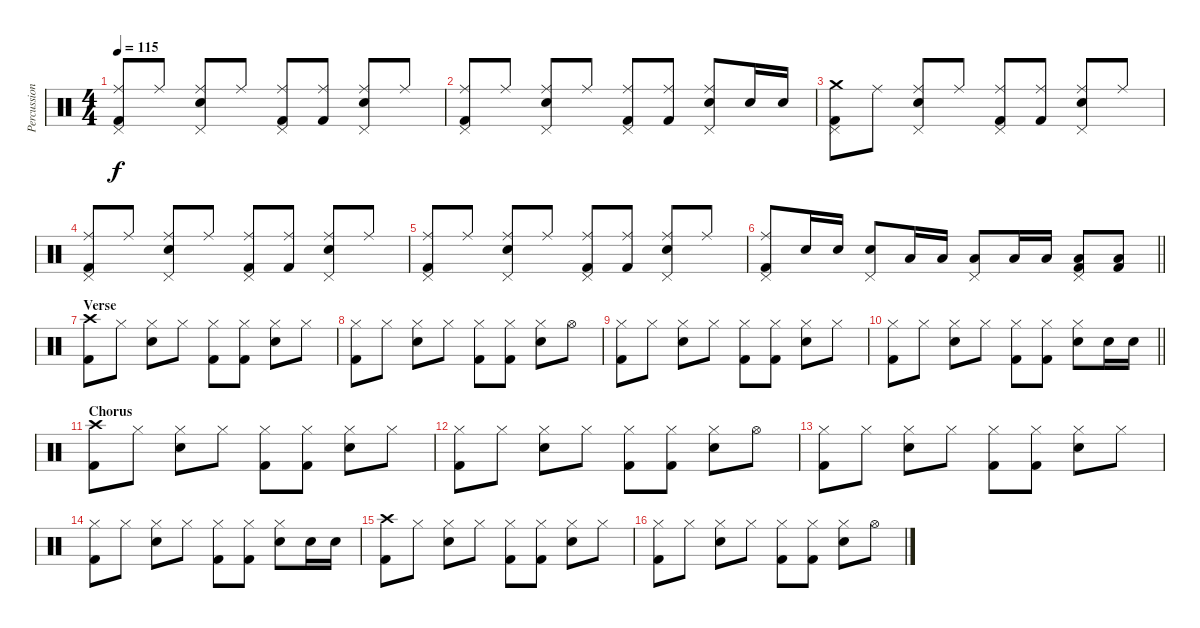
\track ("Percussions" "Percussion") {instrument percussion}
\staff {score}
\articulation defaults
\ts (4 4)
\tempo 115
\clef neutral
\ks c
("Pedal Hi-Hat (hit)" "Ride (middle)" "Kick (hit) 2").8{dy f} "Ride (middle)".8 ("Pedal Hi-Hat (hit)" "Ride (middle)" "Electric Snare (hit)").8 "Ride (middle)".8 ("Pedal Hi-Hat (hit)" "Ride (middle)" "Kick (hit) 2").8 ("Ride (middle)" "Kick (hit) 2").8 ("Pedal Hi-Hat (hit)" "Ride (middle)" "Electric Snare (hit)").8 "Ride (middle)".8 |
("Pedal Hi-Hat (hit)" "Ride (middle)" "Kick (hit) 2").8 "Ride (middle)".8 ("Pedal Hi-Hat (hit)" "Ride (middle)" "Electric Snare (hit)").8 "Ride (middle)".8 ("Pedal Hi-Hat (hit)" "Ride (middle)" "Kick (hit) 2").8 ("Ride (middle)" "Kick (hit) 2").8 ("Pedal Hi-Hat (hit)" "Ride (middle)" "Electric Snare (hit)").8 "Electric Snare (hit)".16 "Electric Snare (hit)".16 |
("Pedal Hi-Hat (hit)" "Crash medium (hit)" "Kick (hit) 2").8 "Ride (middle)".8 ("Pedal Hi-Hat (hit)" "Ride (middle)" "Electric Snare (hit)").8 "Ride (middle)".8 ("Pedal Hi-Hat (hit)" "Ride (middle)" "Kick (hit) 2").8 ("Ride (middle)" "Kick (hit) 2").8 ("Pedal Hi-Hat (hit)" "Ride (middle)" "Electric Snare (hit)").8 "Ride (middle)".8 |
("Pedal Hi-Hat (hit)" "Ride (middle)" "Kick (hit) 2").8 "Ride (middle)".8 ("Pedal Hi-Hat (hit)" "Ride (middle)" "Electric Snare (hit)").8 "Ride (middle)".8 ("Pedal Hi-Hat (hit)" "Ride (middle)" "Kick (hit) 2").8 ("Ride (middle)" "Kick (hit) 2").8 ("Pedal Hi-Hat (hit)" "Ride (middle)" "Electric Snare (hit)").8 "Ride (middle)".8 |
("Pedal Hi-Hat (hit)" "Ride (middle)" "Kick (hit) 2").8 "Ride (middle)".8 ("Pedal Hi-Hat (hit)" "Ride (middle)" "Electric Snare (hit)").8 "Ride (middle)".8 ("Pedal Hi-Hat (hit)" "Ride (middle)" "Kick (hit) 2").8 ("Ride (middle)" "Kick (hit) 2").8 ("Pedal Hi-Hat (hit)" "Ride (middle)" "Electric Snare (hit)").8 "Ride (middle)".8 |
\barLineRight lightlight
("Pedal Hi-Hat (hit)" "Ride (middle)" "Kick (hit) 2").8 "Electric Snare (hit)".16 "Electric Snare (hit)".16 ("Pedal Hi-Hat (hit)" "Electric Snare (hit)").8 "Low Tom (hit)".16 "Low Tom (hit)".16 ("Pedal Hi-Hat (hit)" "Low Tom (hit)").8 "Low Floor Tom (hit)".16 "Low Floor Tom (hit)".16 ("Pedal Hi-Hat (hit)" "Kick (hit) 2" "Low Floor Tom (hit)").8 ("Kick (hit) 2" "Low Floor Tom (hit)").8 |
\section ("" "Verse")
("Crash high (hit)" "Kick (hit) 2").8 "Hi-Hat (closed)".8 ("Hi-Hat (closed)" "Electric Snare (hit)").8 "Hi-Hat (closed)".8 ("Hi-Hat (closed)" "Kick (hit) 2").8 ("Hi-Hat (closed)" "Kick (hit) 2").8 ("Hi-Hat (closed)" "Electric Snare (hit)").8 "Hi-Hat (closed)".8 |
("Hi-Hat (closed)" "Kick (hit) 2").8 "Hi-Hat (closed)".8 ("Hi-Hat (closed)" "Electric Snare (hit)").8 "Hi-Hat (closed)".8 ("Hi-Hat (closed)" "Kick (hit) 2").8 ("Hi-Hat (closed)" "Kick (hit) 2").8 ("Hi-Hat (closed)" "Electric Snare (hit)").8 "Hi-Hat (open)".8 |
("Hi-Hat (closed)" "Kick (hit) 2").8 "Hi-Hat (closed)".8 ("Hi-Hat (closed)" "Electric Snare (hit)").8 "Hi-Hat (closed)".8 ("Hi-Hat (closed)" "Kick (hit) 2").8 ("Hi-Hat (closed)" "Kick (hit) 2").8 ("Hi-Hat (closed)" "Electric Snare (hit)").8 "Hi-Hat (closed)".8 |
\barLineRight lightlight
("Hi-Hat (closed)" "Kick (hit) 2").8 "Hi-Hat (closed)".8 ("Hi-Hat (closed)" "Electric Snare (hit)").8 "Hi-Hat (closed)".8 ("Hi-Hat (closed)" "Kick (hit) 2").8 ("Hi-Hat (closed)" "Kick (hit) 2").8 ("Hi-Hat (closed)" "Electric Snare (hit)").8 "Electric Snare (hit)".16 "Electric Snare (hit)".16 |
\section ("" "Chorus")
("Crash high (hit)" "Kick (hit) 2").8 "Hi-Hat (closed)".8 ("Hi-Hat (closed)" "Electric Snare (hit)").8 "Hi-Hat (closed)".8 ("Hi-Hat (closed)" "Kick (hit) 2").8 ("Hi-Hat (closed)" "Kick (hit) 2").8 ("Hi-Hat (closed)" "Electric Snare (hit)").8 "Hi-Hat (closed)".8 |
("Hi-Hat (closed)" "Kick (hit) 2").8 "Hi-Hat (closed)".8 ("Hi-Hat (closed)" "Electric Snare (hit)").8 "Hi-Hat (closed)".8 ("Hi-Hat (closed)" "Kick (hit) 2").8 ("Hi-Hat (closed)" "Kick (hit) 2").8 ("Hi-Hat (closed)" "Electric Snare (hit)").8 "Hi-Hat (open)".8 |
("Hi-Hat (closed)" "Kick (hit) 2").8 "Hi-Hat (closed)".8 ("Hi-Hat (closed)" "Electric Snare (hit)").8 "Hi-Hat (closed)".8 ("Hi-Hat (closed)" "Kick (hit) 2").8 ("Hi-Hat (closed)" "Kick (hit) 2").8 ("Hi-Hat (closed)" "Electric Snare (hit)").8 "Hi-Hat (closed)".8 |
("Hi-Hat (closed)" "Kick (hit) 2").8 "Hi-Hat (closed)".8 ("Hi-Hat (closed)" "Electric Snare (hit)").8 "Hi-Hat (closed)".8 ("Hi-Hat (closed)" "Kick (hit) 2").8 ("Hi-Hat (closed)" "Kick (hit) 2").8 ("Hi-Hat (closed)" "Electric Snare (hit)").8 "Electric Snare (hit)".16 "Electric Snare (hit)".16 |
("Crash high (hit)" "Kick (hit) 2").8 "Hi-Hat (closed)".8 ("Hi-Hat (closed)" "Electric Snare (hit)").8 "Hi-Hat (closed)".8 ("Hi-Hat (closed)" "Kick (hit) 2").8 ("Hi-Hat (closed)" "Kick (hit) 2").8 ("Hi-Hat (closed)" "Electric Snare (hit)").8 "Hi-Hat (closed)".8 |
("Hi-Hat (closed)" "Kick (hit) 2").8 "Hi-Hat (closed)".8 ("Hi-Hat (closed)" "Electric Snare (hit)").8 "Hi-Hat (closed)".8 ("Hi-Hat (closed)" "Kick (hit) 2").8 ("Hi-Hat (closed)" "Kick (hit) 2").8 ("Hi-Hat (closed)" "Electric Snare (hit)").8 "Hi-Hat (open)".8
